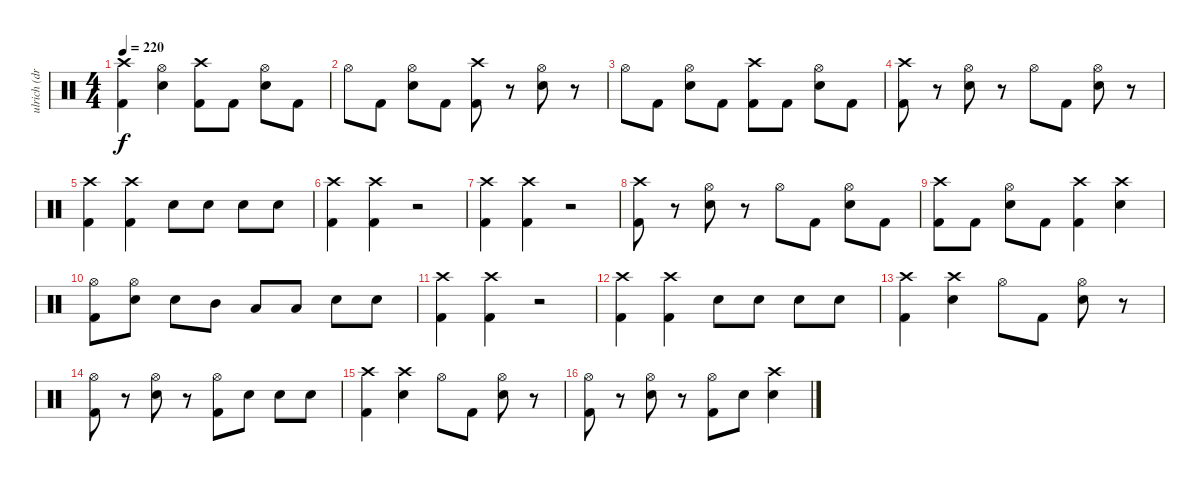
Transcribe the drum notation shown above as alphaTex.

\track ("ulrich (drums)" "ulrich (dr") {instrument percussion}
\staff {score}
\articulation defaults
\ts (4 4)
\tempo 220
\clef neutral
\ks c
("Crash high (hit)" "Kick (hit) 2").4{dy f} ("Hi-Hat (open)" "Snare (hit) 2").4 ("Crash high (hit)" "Kick (hit) 2").8 "Kick (hit) 2".8 ("Hi-Hat (open)" "Snare (hit) 2").8 "Kick (hit) 2".8 |
"Hi-Hat (open)".8 "Kick (hit) 2".8 ("Hi-Hat (open)" "Snare (hit) 2").8 "Kick (hit) 2".8 ("Crash high (hit)" "Kick (hit) 2").8 r.8 ("Hi-Hat (open)" "Snare (hit) 2").8 r.8 |
"Hi-Hat (open)".8 "Kick (hit) 2".8 ("Hi-Hat (open)" "Snare (hit) 2").8 "Kick (hit) 2".8 ("Crash high (hit)" "Kick (hit) 2").8 "Kick (hit) 2".8 ("Hi-Hat (open)" "Snare (hit) 2").8 "Kick (hit) 2".8 |
("Crash high (hit)" "Kick (hit) 2").8 r.8 ("Hi-Hat (open)" "Snare (hit) 2").8 r.8 "Hi-Hat (open)".8 "Kick (hit) 2".8 ("Hi-Hat (open)" "Snare (hit) 2").8 r.8 |
("Crash high (hit)" "Kick (hit) 2").4 ("Crash high (hit)" "Kick (hit) 2").4 "Snare (hit) 2".8 "Snare (hit) 2".8 "Snare (hit) 2".8 "Snare (hit) 2".8 |
("Crash high (hit)" "Kick (hit) 2").4 ("Crash high (hit)" "Kick (hit) 2").4 r.2 |
("Crash high (hit)" "Kick (hit) 2").4 ("Crash high (hit)" "Kick (hit) 2").4 r.2 |
("Crash high (hit)" "Kick (hit) 2").8 r.8 ("Hi-Hat (open)" "Snare (hit) 2").8 r.8 "Hi-Hat (open)".8 "Kick (hit) 2".8 ("Hi-Hat (open)" "Snare (hit) 2").8 "Kick (hit) 2".8 |
("Crash high (hit)" "Kick (hit) 2").8 "Kick (hit) 2".8 ("Hi-Hat (open)" "Snare (hit) 2").8 "Kick (hit) 2".8 ("Crash high (hit)" "Kick (hit) 2").4 ("Crash high (hit)" "Snare (hit) 2").4 |
("Hi-Hat (open)" "Kick (hit) 2").8 ("Hi-Hat (open)" "Snare (hit) 2").8 "Snare (hit) 2".8 "Mid Tom (hit)".8 "Low Tom (hit)".8 "Low Tom (hit)".8 "Snare (hit) 2".8 "Snare (hit) 2".8 |
("Crash high (hit)" "Kick (hit) 2").4 ("Crash high (hit)" "Kick (hit) 2").4 r.2 |
("Crash high (hit)" "Kick (hit) 2").4 ("Crash high (hit)" "Kick (hit) 2").4 "Snare (hit) 2".8 "Snare (hit) 2".8 "Snare (hit) 2".8 "Snare (hit) 2".8 |
("Crash high (hit)" "Kick (hit) 2").4 ("Crash high (hit)" "Snare (hit) 2").4 "Hi-Hat (open)".8 "Kick (hit) 2".8 ("Hi-Hat (open)" "Snare (hit) 2").8 r.8 |
("Hi-Hat (open)" "Kick (hit) 2").8 r.8 ("Hi-Hat (open)" "Snare (hit) 2").8 r.8 ("Hi-Hat (open)" "Kick (hit) 2").8 "Snare (hit) 2".8 "Snare (hit) 2".8 "Snare (hit) 2".8 |
("Crash high (hit)" "Kick (hit) 2").4 ("Crash high (hit)" "Snare (hit) 2").4 "Hi-Hat (open)".8 "Kick (hit) 2".8 ("Hi-Hat (open)" "Snare (hit) 2").8 r.8 |
("Hi-Hat (open)" "Kick (hit) 2").8 r.8 ("Hi-Hat (open)" "Snare (hit) 2").8 r.8 ("Hi-Hat (open)" "Kick (hit) 2").8 "Snare (hit) 2".8 ("Crash high (hit)" "Snare (hit) 2").4
